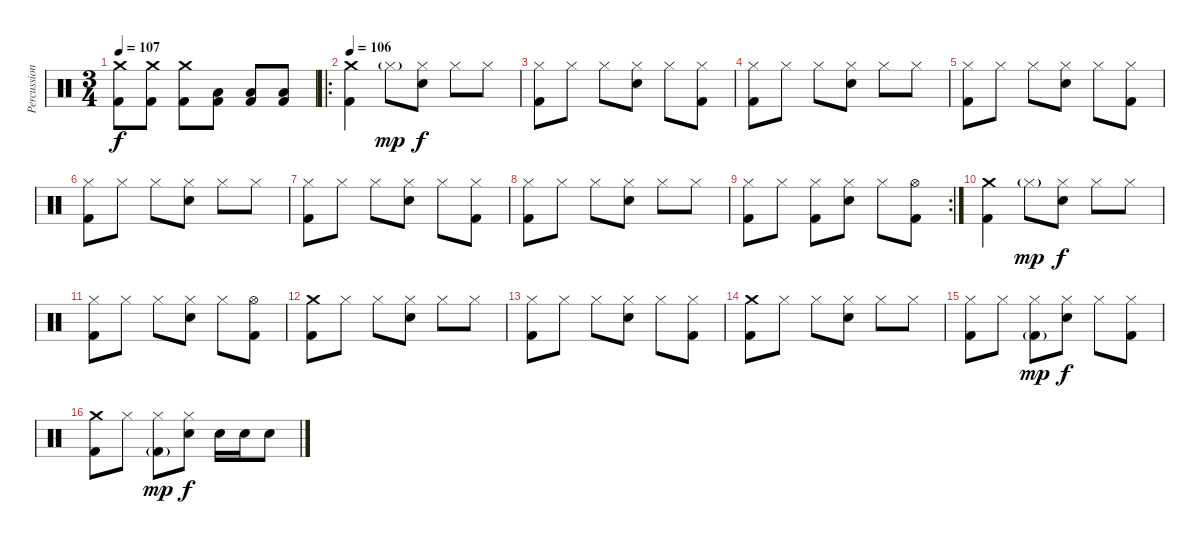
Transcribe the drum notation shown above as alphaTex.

\track ("Percussions" "Percussion") {instrument percussion}
\staff {score}
\articulation defaults
\ts (3 4)
\tempo 107
\clef neutral
\ks c
("Crash medium (hit)" "Kick (hit) 2").8{dy f} ("Crash medium (hit)" "Kick (hit) 2").8 ("Crash medium (hit)" "Kick (hit) 2").8 ("Low Floor Tom (hit)" "Kick (hit) 2").8 ("Low Floor Tom (hit)" "Kick (hit) 2").8 ("Low Floor Tom (hit)" "Kick (hit) 2").8 |
\ro
\tempo 106
("Crash medium (hit)" "Kick (hit) 2").4 "Hi-Hat (closed)"{g}.8{dy mp} ("Hi-Hat (closed)" "Snare (hit) 2").8{dy f} "Hi-Hat (closed)".8 "Hi-Hat (closed)".8 |
("Hi-Hat (closed)" "Kick (hit) 2").8 "Hi-Hat (closed)".8 "Hi-Hat (closed)".8 ("Hi-Hat (closed)" "Snare (hit) 2").8 "Hi-Hat (closed)".8 ("Hi-Hat (closed)" "Kick (hit) 2").8 |
("Hi-Hat (closed)" "Kick (hit) 2").8 "Hi-Hat (closed)".8 "Hi-Hat (closed)".8 ("Hi-Hat (closed)" "Snare (hit) 2").8 "Hi-Hat (closed)".8 "Hi-Hat (closed)".8 |
("Hi-Hat (closed)" "Kick (hit) 2").8 "Hi-Hat (closed)".8 "Hi-Hat (closed)".8 ("Hi-Hat (closed)" "Snare (hit) 2").8 "Hi-Hat (closed)".8 ("Hi-Hat (closed)" "Kick (hit) 2").8 |
("Hi-Hat (closed)" "Kick (hit) 2").8 "Hi-Hat (closed)".8 "Hi-Hat (closed)".8 ("Hi-Hat (closed)" "Snare (hit) 2").8 "Hi-Hat (closed)".8 "Hi-Hat (closed)".8 |
("Hi-Hat (closed)" "Kick (hit) 2").8 "Hi-Hat (closed)".8 "Hi-Hat (closed)".8 ("Hi-Hat (closed)" "Snare (hit) 2").8 "Hi-Hat (closed)".8 ("Hi-Hat (closed)" "Kick (hit) 2").8 |
("Hi-Hat (closed)" "Kick (hit) 2").8 "Hi-Hat (closed)".8 "Hi-Hat (closed)".8 ("Hi-Hat (closed)" "Snare (hit) 2").8 "Hi-Hat (closed)".8 "Hi-Hat (closed)".8 |
\rc 2
("Hi-Hat (closed)" "Kick (hit) 2").8 "Hi-Hat (closed)".8 ("Hi-Hat (closed)" "Kick (hit) 2").8 ("Hi-Hat (closed)" "Snare (hit) 2").8 "Hi-Hat (closed)".8 ("Hi-Hat (open)" "Kick (hit) 2").8 |
("Crash medium (hit)" "Kick (hit) 2").4 "Hi-Hat (closed)"{g}.8{dy mp} ("Hi-Hat (closed)" "Snare (hit) 2").8{dy f} "Hi-Hat (closed)".8 "Hi-Hat (closed)".8 |
("Hi-Hat (closed)" "Kick (hit) 2").8 "Hi-Hat (closed)".8 "Hi-Hat (closed)".8 ("Hi-Hat (closed)" "Snare (hit) 2").8 "Hi-Hat (closed)".8 ("Hi-Hat (open)" "Kick (hit) 2").8 |
("Crash medium (hit)" "Kick (hit) 2").8 "Hi-Hat (closed)".8 "Hi-Hat (closed)".8 ("Hi-Hat (closed)" "Snare (hit) 2").8 "Hi-Hat (closed)".8 "Hi-Hat (closed)".8 |
("Hi-Hat (closed)" "Kick (hit) 2").8 "Hi-Hat (closed)".8 "Hi-Hat (closed)".8 ("Hi-Hat (closed)" "Snare (hit) 2").8 "Hi-Hat (closed)".8 ("Hi-Hat (closed)" "Kick (hit) 2").8 |
("Crash medium (hit)" "Kick (hit) 2").8 "Hi-Hat (closed)".8 "Hi-Hat (closed)".8 ("Hi-Hat (closed)" "Snare (hit) 2").8 "Hi-Hat (closed)".8 "Hi-Hat (closed)".8 |
("Hi-Hat (closed)" "Kick (hit) 2").8 "Hi-Hat (closed)".8 ("Hi-Hat (closed)" "Kick (hit) 2"{g}).8{dy mp} ("Hi-Hat (closed)" "Snare (hit) 2").8{dy f} "Hi-Hat (closed)".8 ("Hi-Hat (closed)" "Kick (hit) 2").8 |
("Crash medium (hit)" "Kick (hit) 2").8 "Hi-Hat (closed)".8 ("Hi-Hat (closed)" "Kick (hit) 2"{g}).8{dy mp} ("Hi-Hat (closed)" "Snare (hit) 2").8{dy f} "Snare (hit) 2".16 "Snare (hit) 2".16 "Snare (hit) 2".8
